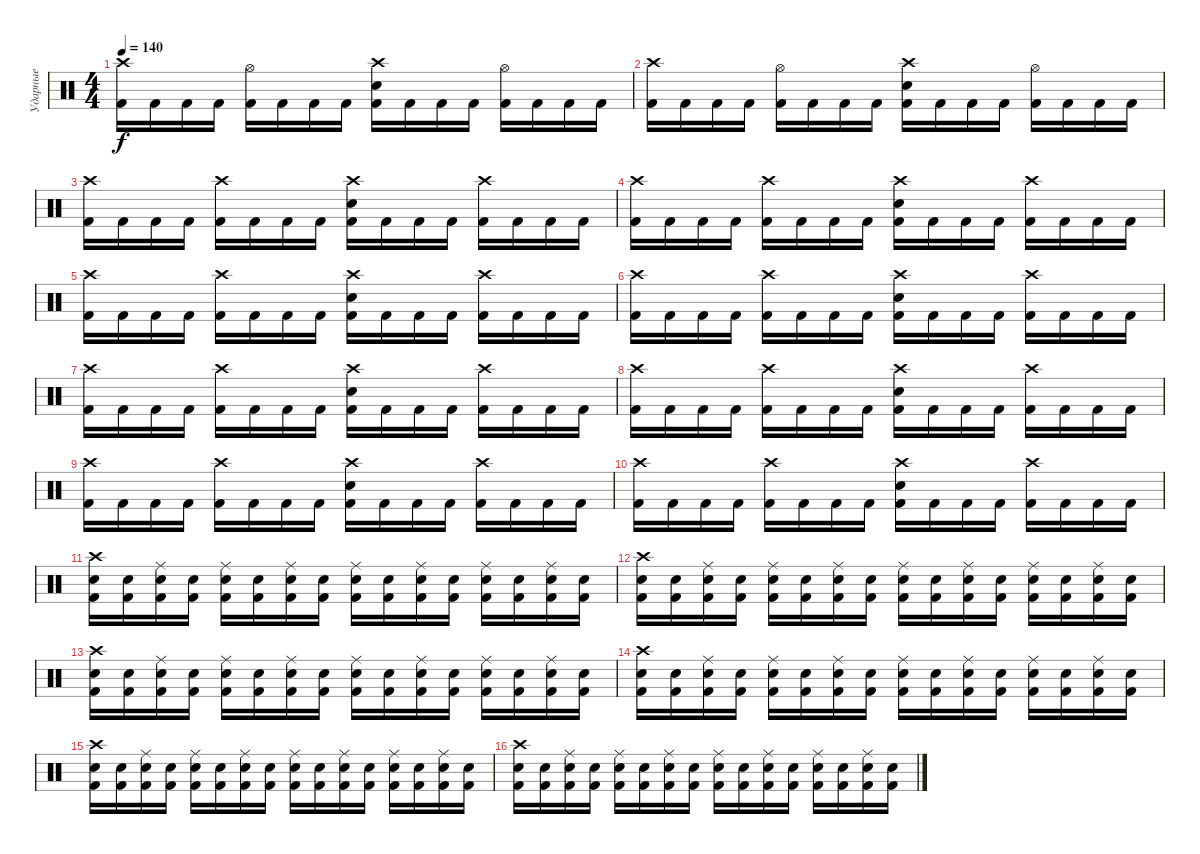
\track ("Ударные" "Ударные") {mute instrument percussion}
\staff {score}
\articulation defaults
\ts (4 4)
\tempo 140
\clef neutral
\ks c
("Crash high (hit)" "Kick (hit) 2").16{dy f} "Kick (hit) 2".16 "Kick (hit) 2".16 "Kick (hit) 2".16 ("Hi-Hat (open)" "Kick (hit) 2").16 "Kick (hit) 2".16 "Kick (hit) 2".16 "Kick (hit) 2".16 ("Crash high (hit)" "Electric Snare (hit)" "Kick (hit) 2").16 "Kick (hit) 2".16 "Kick (hit) 2".16 "Kick (hit) 2".16 ("Hi-Hat (open)" "Kick (hit) 2").16 "Kick (hit) 2".16 "Kick (hit) 2".16 "Kick (hit) 2".16 |
("Crash high (hit)" "Kick (hit) 2").16 "Kick (hit) 2".16 "Kick (hit) 2".16 "Kick (hit) 2".16 ("Hi-Hat (open)" "Kick (hit) 2").16 "Kick (hit) 2".16 "Kick (hit) 2".16 "Kick (hit) 2".16 ("Crash high (hit)" "Electric Snare (hit)" "Kick (hit) 2").16 "Kick (hit) 2".16 "Kick (hit) 2".16 "Kick (hit) 2".16 ("Hi-Hat (open)" "Kick (hit) 2").16 "Kick (hit) 2".16 "Kick (hit) 2".16 "Kick (hit) 2".16 |
("Crash high (hit)" "Kick (hit) 2").16 "Kick (hit) 2".16 "Kick (hit) 2".16 "Kick (hit) 2".16 ("Crash high (hit)" "Kick (hit) 2").16 "Kick (hit) 2".16 "Kick (hit) 2".16 "Kick (hit) 2".16 ("Crash high (hit)" "Electric Snare (hit)" "Kick (hit) 2").16 "Kick (hit) 2".16 "Kick (hit) 2".16 "Kick (hit) 2".16 ("Crash high (hit)" "Kick (hit) 2").16 "Kick (hit) 2".16 "Kick (hit) 2".16 "Kick (hit) 2".16 |
("Crash high (hit)" "Kick (hit) 2").16 "Kick (hit) 2".16 "Kick (hit) 2".16 "Kick (hit) 2".16 ("Crash high (hit)" "Kick (hit) 2").16 "Kick (hit) 2".16 "Kick (hit) 2".16 "Kick (hit) 2".16 ("Crash high (hit)" "Electric Snare (hit)" "Kick (hit) 2").16 "Kick (hit) 2".16 "Kick (hit) 2".16 "Kick (hit) 2".16 ("Crash high (hit)" "Kick (hit) 2").16 "Kick (hit) 2".16 "Kick (hit) 2".16 "Kick (hit) 2".16 |
("Crash high (hit)" "Kick (hit) 2").16 "Kick (hit) 2".16 "Kick (hit) 2".16 "Kick (hit) 2".16 ("Crash high (hit)" "Kick (hit) 2").16 "Kick (hit) 2".16 "Kick (hit) 2".16 "Kick (hit) 2".16 ("Crash high (hit)" "Electric Snare (hit)" "Kick (hit) 2").16 "Kick (hit) 2".16 "Kick (hit) 2".16 "Kick (hit) 2".16 ("Crash high (hit)" "Kick (hit) 2").16 "Kick (hit) 2".16 "Kick (hit) 2".16 "Kick (hit) 2".16 |
("Crash high (hit)" "Kick (hit) 2").16 "Kick (hit) 2".16 "Kick (hit) 2".16 "Kick (hit) 2".16 ("Crash high (hit)" "Kick (hit) 2").16 "Kick (hit) 2".16 "Kick (hit) 2".16 "Kick (hit) 2".16 ("Crash high (hit)" "Electric Snare (hit)" "Kick (hit) 2").16 "Kick (hit) 2".16 "Kick (hit) 2".16 "Kick (hit) 2".16 ("Crash high (hit)" "Kick (hit) 2").16 "Kick (hit) 2".16 "Kick (hit) 2".16 "Kick (hit) 2".16 |
("Crash high (hit)" "Kick (hit) 2").16 "Kick (hit) 2".16 "Kick (hit) 2".16 "Kick (hit) 2".16 ("Crash high (hit)" "Kick (hit) 2").16 "Kick (hit) 2".16 "Kick (hit) 2".16 "Kick (hit) 2".16 ("Crash high (hit)" "Electric Snare (hit)" "Kick (hit) 2").16 "Kick (hit) 2".16 "Kick (hit) 2".16 "Kick (hit) 2".16 ("Crash high (hit)" "Kick (hit) 2").16 "Kick (hit) 2".16 "Kick (hit) 2".16 "Kick (hit) 2".16 |
("Crash high (hit)" "Kick (hit) 2").16 "Kick (hit) 2".16 "Kick (hit) 2".16 "Kick (hit) 2".16 ("Crash high (hit)" "Kick (hit) 2").16 "Kick (hit) 2".16 "Kick (hit) 2".16 "Kick (hit) 2".16 ("Crash high (hit)" "Electric Snare (hit)" "Kick (hit) 2").16 "Kick (hit) 2".16 "Kick (hit) 2".16 "Kick (hit) 2".16 ("Crash high (hit)" "Kick (hit) 2").16 "Kick (hit) 2".16 "Kick (hit) 2".16 "Kick (hit) 2".16 |
("Crash high (hit)" "Kick (hit) 2").16 "Kick (hit) 2".16 "Kick (hit) 2".16 "Kick (hit) 2".16 ("Crash high (hit)" "Kick (hit) 2").16 "Kick (hit) 2".16 "Kick (hit) 2".16 "Kick (hit) 2".16 ("Crash high (hit)" "Electric Snare (hit)" "Kick (hit) 2").16 "Kick (hit) 2".16 "Kick (hit) 2".16 "Kick (hit) 2".16 ("Crash high (hit)" "Kick (hit) 2").16 "Kick (hit) 2".16 "Kick (hit) 2".16 "Kick (hit) 2".16 |
("Crash high (hit)" "Kick (hit) 2").16 "Kick (hit) 2".16 "Kick (hit) 2".16 "Kick (hit) 2".16 ("Crash high (hit)" "Kick (hit) 2").16 "Kick (hit) 2".16 "Kick (hit) 2".16 "Kick (hit) 2".16 ("Crash high (hit)" "Electric Snare (hit)" "Kick (hit) 2").16 "Kick (hit) 2".16 "Kick (hit) 2".16 "Kick (hit) 2".16 ("Crash high (hit)" "Kick (hit) 2").16 "Kick (hit) 2".16 "Kick (hit) 2".16 "Kick (hit) 2".16 |
("Crash high (hit)" "Electric Snare (hit)" "Kick (hit) 2").16 ("Electric Snare (hit)" "Kick (hit) 2").16 ("Ride (middle)" "Electric Snare (hit)" "Kick (hit) 2").16 ("Electric Snare (hit)" "Kick (hit) 2").16 ("Ride (middle)" "Electric Snare (hit)" "Kick (hit) 2").16 ("Electric Snare (hit)" "Kick (hit) 2").16 ("Ride (middle)" "Electric Snare (hit)" "Kick (hit) 2").16 ("Electric Snare (hit)" "Kick (hit) 2").16 ("Ride (middle)" "Electric Snare (hit)" "Kick (hit) 2").16 ("Electric Snare (hit)" "Kick (hit) 2").16 ("Ride (middle)" "Electric Snare (hit)" "Kick (hit) 2").16 ("Electric Snare (hit)" "Kick (hit) 2").16 ("Ride (middle)" "Electric Snare (hit)" "Kick (hit) 2").16 ("Electric Snare (hit)" "Kick (hit) 2").16 ("Ride (middle)" "Electric Snare (hit)" "Kick (hit) 2").16 ("Electric Snare (hit)" "Kick (hit) 2").16 |
("Crash high (hit)" "Electric Snare (hit)" "Kick (hit) 2").16 ("Electric Snare (hit)" "Kick (hit) 2").16 ("Ride (middle)" "Electric Snare (hit)" "Kick (hit) 2").16 ("Electric Snare (hit)" "Kick (hit) 2").16 ("Ride (middle)" "Electric Snare (hit)" "Kick (hit) 2").16 ("Electric Snare (hit)" "Kick (hit) 2").16 ("Ride (middle)" "Electric Snare (hit)" "Kick (hit) 2").16 ("Electric Snare (hit)" "Kick (hit) 2").16 ("Ride (middle)" "Electric Snare (hit)" "Kick (hit) 2").16 ("Electric Snare (hit)" "Kick (hit) 2").16 ("Ride (middle)" "Electric Snare (hit)" "Kick (hit) 2").16 ("Electric Snare (hit)" "Kick (hit) 2").16 ("Ride (middle)" "Electric Snare (hit)" "Kick (hit) 2").16 ("Electric Snare (hit)" "Kick (hit) 2").16 ("Ride (middle)" "Electric Snare (hit)" "Kick (hit) 2").16 ("Electric Snare (hit)" "Kick (hit) 2").16 |
("Crash high (hit)" "Electric Snare (hit)" "Kick (hit) 2").16 ("Electric Snare (hit)" "Kick (hit) 2").16 ("Ride (middle)" "Electric Snare (hit)" "Kick (hit) 2").16 ("Electric Snare (hit)" "Kick (hit) 2").16 ("Ride (middle)" "Electric Snare (hit)" "Kick (hit) 2").16 ("Electric Snare (hit)" "Kick (hit) 2").16 ("Ride (middle)" "Electric Snare (hit)" "Kick (hit) 2").16 ("Electric Snare (hit)" "Kick (hit) 2").16 ("Ride (middle)" "Electric Snare (hit)" "Kick (hit) 2").16 ("Electric Snare (hit)" "Kick (hit) 2").16 ("Ride (middle)" "Electric Snare (hit)" "Kick (hit) 2").16 ("Electric Snare (hit)" "Kick (hit) 2").16 ("Ride (middle)" "Electric Snare (hit)" "Kick (hit) 2").16 ("Electric Snare (hit)" "Kick (hit) 2").16 ("Ride (middle)" "Electric Snare (hit)" "Kick (hit) 2").16 ("Electric Snare (hit)" "Kick (hit) 2").16 |
("Crash high (hit)" "Electric Snare (hit)" "Kick (hit) 2").16 ("Electric Snare (hit)" "Kick (hit) 2").16 ("Ride (middle)" "Electric Snare (hit)" "Kick (hit) 2").16 ("Electric Snare (hit)" "Kick (hit) 2").16 ("Ride (middle)" "Electric Snare (hit)" "Kick (hit) 2").16 ("Electric Snare (hit)" "Kick (hit) 2").16 ("Ride (middle)" "Electric Snare (hit)" "Kick (hit) 2").16 ("Electric Snare (hit)" "Kick (hit) 2").16 ("Ride (middle)" "Electric Snare (hit)" "Kick (hit) 2").16 ("Electric Snare (hit)" "Kick (hit) 2").16 ("Ride (middle)" "Electric Snare (hit)" "Kick (hit) 2").16 ("Electric Snare (hit)" "Kick (hit) 2").16 ("Ride (middle)" "Electric Snare (hit)" "Kick (hit) 2").16 ("Electric Snare (hit)" "Kick (hit) 2").16 ("Ride (middle)" "Electric Snare (hit)" "Kick (hit) 2").16 ("Electric Snare (hit)" "Kick (hit) 2").16 |
("Crash high (hit)" "Electric Snare (hit)" "Kick (hit) 2").16 ("Electric Snare (hit)" "Kick (hit) 2").16 ("Ride (middle)" "Electric Snare (hit)" "Kick (hit) 2").16 ("Electric Snare (hit)" "Kick (hit) 2").16 ("Ride (middle)" "Electric Snare (hit)" "Kick (hit) 2").16 ("Electric Snare (hit)" "Kick (hit) 2").16 ("Ride (middle)" "Electric Snare (hit)" "Kick (hit) 2").16 ("Electric Snare (hit)" "Kick (hit) 2").16 ("Ride (middle)" "Electric Snare (hit)" "Kick (hit) 2").16 ("Electric Snare (hit)" "Kick (hit) 2").16 ("Ride (middle)" "Electric Snare (hit)" "Kick (hit) 2").16 ("Electric Snare (hit)" "Kick (hit) 2").16 ("Ride (middle)" "Electric Snare (hit)" "Kick (hit) 2").16 ("Electric Snare (hit)" "Kick (hit) 2").16 ("Ride (middle)" "Electric Snare (hit)" "Kick (hit) 2").16 ("Electric Snare (hit)" "Kick (hit) 2").16 |
("Crash high (hit)" "Electric Snare (hit)" "Kick (hit) 2").16 ("Electric Snare (hit)" "Kick (hit) 2").16 ("Ride (middle)" "Electric Snare (hit)" "Kick (hit) 2").16 ("Electric Snare (hit)" "Kick (hit) 2").16 ("Ride (middle)" "Electric Snare (hit)" "Kick (hit) 2").16 ("Electric Snare (hit)" "Kick (hit) 2").16 ("Ride (middle)" "Electric Snare (hit)" "Kick (hit) 2").16 ("Electric Snare (hit)" "Kick (hit) 2").16 ("Ride (middle)" "Electric Snare (hit)" "Kick (hit) 2").16 ("Electric Snare (hit)" "Kick (hit) 2").16 ("Ride (middle)" "Electric Snare (hit)" "Kick (hit) 2").16 ("Electric Snare (hit)" "Kick (hit) 2").16 ("Ride (middle)" "Electric Snare (hit)" "Kick (hit) 2").16 ("Electric Snare (hit)" "Kick (hit) 2").16 ("Ride (middle)" "Electric Snare (hit)" "Kick (hit) 2").16 ("Electric Snare (hit)" "Kick (hit) 2").16
